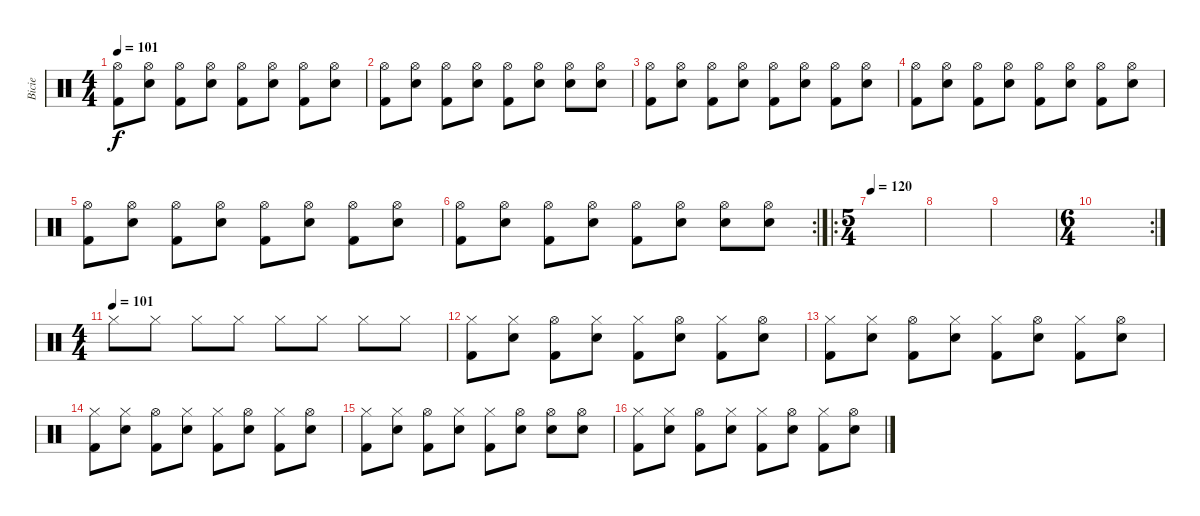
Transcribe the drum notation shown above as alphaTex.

\track ("Bicie" "Bicie") {instrument percussion}
\staff {score}
\articulation defaults
\ts (4 4)
\tempo 101
\clef neutral
\ks c
("Hi-Hat (open)" "Kick (hit) 2").8{dy f} ("Hi-Hat (open)" "Snare (hit) 2").8 ("Hi-Hat (open)" "Kick (hit) 2").8 ("Hi-Hat (open)" "Snare (hit) 2").8 ("Hi-Hat (open)" "Kick (hit) 2").8 ("Hi-Hat (open)" "Snare (hit) 2").8 ("Hi-Hat (open)" "Kick (hit) 2").8 ("Hi-Hat (open)" "Snare (hit) 2").8 |
("Hi-Hat (open)" "Kick (hit) 2").8 ("Hi-Hat (open)" "Snare (hit) 2").8 ("Hi-Hat (open)" "Kick (hit) 2").8 ("Hi-Hat (open)" "Snare (hit) 2").8 ("Hi-Hat (open)" "Kick (hit) 2").8 ("Hi-Hat (open)" "Snare (hit) 2").8 ("Hi-Hat (open)" "Snare (hit) 2").8 ("Hi-Hat (open)" "Snare (hit) 2").8 |
("Hi-Hat (open)" "Kick (hit) 2").8 ("Hi-Hat (open)" "Snare (hit) 2").8 ("Hi-Hat (open)" "Kick (hit) 2").8 ("Hi-Hat (open)" "Snare (hit) 2").8 ("Hi-Hat (open)" "Kick (hit) 2").8 ("Hi-Hat (open)" "Snare (hit) 2").8 ("Hi-Hat (open)" "Kick (hit) 2").8 ("Hi-Hat (open)" "Snare (hit) 2").8 |
("Hi-Hat (open)" "Kick (hit) 2").8 ("Hi-Hat (open)" "Snare (hit) 2").8 ("Hi-Hat (open)" "Kick (hit) 2").8 ("Hi-Hat (open)" "Snare (hit) 2").8 ("Hi-Hat (open)" "Kick (hit) 2").8 ("Hi-Hat (open)" "Snare (hit) 2").8 ("Hi-Hat (open)" "Kick (hit) 2").8 ("Hi-Hat (open)" "Snare (hit) 2").8 |
("Hi-Hat (open)" "Kick (hit) 2").8 ("Hi-Hat (open)" "Snare (hit) 2").8 ("Hi-Hat (open)" "Kick (hit) 2").8 ("Hi-Hat (open)" "Snare (hit) 2").8 ("Hi-Hat (open)" "Kick (hit) 2").8 ("Hi-Hat (open)" "Snare (hit) 2").8 ("Hi-Hat (open)" "Kick (hit) 2").8 ("Hi-Hat (open)" "Snare (hit) 2").8 |
\rc 2
("Hi-Hat (open)" "Kick (hit) 2").8 ("Hi-Hat (open)" "Snare (hit) 2").8 ("Hi-Hat (open)" "Kick (hit) 2").8 ("Hi-Hat (open)" "Snare (hit) 2").8 ("Hi-Hat (open)" "Kick (hit) 2").8 ("Hi-Hat (open)" "Snare (hit) 2").8 ("Hi-Hat (open)" "Snare (hit) 2").8 ("Hi-Hat (open)" "Snare (hit) 2").8 |
\ro
\ts (5 4)
\tempo 120
|
|
|
\rc 2
\ts (6 4)
|
\ts (4 4)
\tempo (101)
"Hi-Hat (closed)".8 "Hi-Hat (closed)".8 "Hi-Hat (closed)".8 "Hi-Hat (closed)".8 "Hi-Hat (closed)".8 "Hi-Hat (closed)".8 "Hi-Hat (closed)".8 "Hi-Hat (closed)".8 |
("Hi-Hat (closed)" "Kick (hit) 2").8 ("Hi-Hat (closed)" "Snare (hit) 2").8 ("Hi-Hat (open)" "Kick (hit) 2").8 ("Hi-Hat (closed)" "Snare (hit) 2").8 ("Hi-Hat (closed)" "Kick (hit) 2").8 ("Hi-Hat (open)" "Snare (hit) 2").8 ("Hi-Hat (closed)" "Kick (hit) 2").8 ("Hi-Hat (open)" "Snare (hit) 2").8 |
("Hi-Hat (closed)" "Kick (hit) 2").8 ("Hi-Hat (closed)" "Snare (hit) 2").8 ("Hi-Hat (open)" "Kick (hit) 2").8 ("Hi-Hat (closed)" "Snare (hit) 2").8 ("Hi-Hat (closed)" "Kick (hit) 2").8 ("Hi-Hat (open)" "Snare (hit) 2").8 ("Hi-Hat (closed)" "Kick (hit) 2").8 ("Hi-Hat (open)" "Snare (hit) 2").8 |
("Hi-Hat (closed)" "Kick (hit) 2").8 ("Hi-Hat (closed)" "Snare (hit) 2").8 ("Hi-Hat (open)" "Kick (hit) 2").8 ("Hi-Hat (closed)" "Snare (hit) 2").8 ("Hi-Hat (closed)" "Kick (hit) 2").8 ("Hi-Hat (open)" "Snare (hit) 2").8 ("Hi-Hat (closed)" "Kick (hit) 2").8 ("Hi-Hat (open)" "Snare (hit) 2").8 |
("Hi-Hat (closed)" "Kick (hit) 2").8 ("Hi-Hat (closed)" "Snare (hit) 2").8 ("Hi-Hat (open)" "Kick (hit) 2").8 ("Hi-Hat (closed)" "Snare (hit) 2").8 ("Hi-Hat (closed)" "Kick (hit) 2").8 ("Hi-Hat (open)" "Snare (hit) 2").8 ("Hi-Hat (open)" "Snare (hit) 2").8 ("Hi-Hat (open)" "Snare (hit) 2").8 |
("Hi-Hat (closed)" "Kick (hit) 2").8 ("Hi-Hat (closed)" "Snare (hit) 2").8 ("Hi-Hat (open)" "Kick (hit) 2").8 ("Hi-Hat (closed)" "Snare (hit) 2").8 ("Hi-Hat (closed)" "Kick (hit) 2").8 ("Hi-Hat (open)" "Snare (hit) 2").8 ("Hi-Hat (closed)" "Kick (hit) 2").8 ("Hi-Hat (open)" "Snare (hit) 2").8
